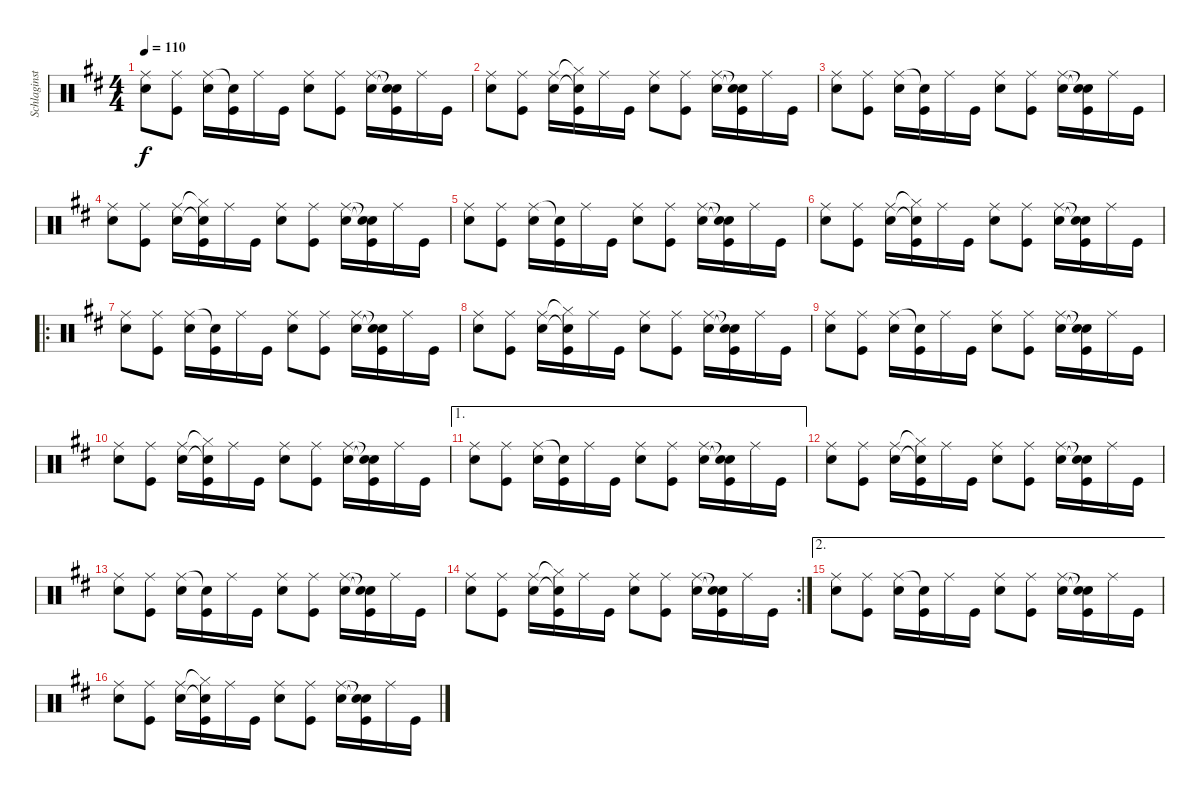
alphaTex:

\track ("Schlaginstrumente - Auswahl" "Schlaginst") {instrument percussion}
\staff {score}
\articulation defaults
\ts (4 4)
\tempo 110
\clef neutral
\ks d
("Ride (middle)" "Snare (hit) 2").8{dy f} ("Ride (middle)" "Kick (hit)").8 ("Ride (middle)" "Snare (hit) 2").16 ("Snare (hit)"{t} "Kick (hit)").16 "Ride (middle)".16 "Kick (hit)".16 ("Ride (middle)" "Snare (hit) 2").8 ("Ride (middle)" "Kick (hit)").8 ("Ride (middle)" "Snare (hit) 2").16 ("Snare (hit)"{t} "Snare (hit)"{t} "Kick (hit)").16 "Ride (middle)".16 "Kick (hit)".16 |
("Ride (middle)" "Snare (hit) 2").8 ("Ride (middle)" "Kick (hit)").8 ("Ride (middle)" "Snare (hit) 2").16 ("Hi-Hat (closed)"{t} "Snare (hit)"{t} "Kick (hit)").16 "Ride (middle)".16 "Kick (hit)".16 ("Ride (middle)" "Snare (hit) 2").8 ("Ride (middle)" "Kick (hit)").8 ("Ride (middle)" "Snare (hit) 2").16 ("Snare (hit)"{t} "Snare (hit)"{t} "Kick (hit)").16 "Ride (middle)".16 "Kick (hit)".16 |
("Ride (middle)" "Snare (hit) 2").8 ("Ride (middle)" "Kick (hit)").8 ("Ride (middle)" "Snare (hit) 2").16 ("Snare (hit)"{t} "Kick (hit)").16 "Ride (middle)".16 "Kick (hit)".16 ("Ride (middle)" "Snare (hit) 2").8 ("Ride (middle)" "Kick (hit)").8 ("Ride (middle)" "Snare (hit) 2").16 ("Snare (hit)"{t} "Snare (hit)"{t} "Kick (hit)").16 "Ride (middle)".16 "Kick (hit)".16 |
("Ride (middle)" "Snare (hit) 2").8 ("Ride (middle)" "Kick (hit)").8 ("Ride (middle)" "Snare (hit) 2").16 ("Hi-Hat (closed)"{t} "Snare (hit)"{t} "Kick (hit)").16 "Ride (middle)".16 "Kick (hit)".16 ("Ride (middle)" "Snare (hit) 2").8 ("Ride (middle)" "Kick (hit)").8 ("Ride (middle)" "Snare (hit) 2").16 ("Snare (hit)"{t} "Snare (hit)"{t} "Kick (hit)").16 "Ride (middle)".16 "Kick (hit)".16 |
("Ride (middle)" "Snare (hit) 2").8 ("Ride (middle)" "Kick (hit)").8 ("Ride (middle)" "Snare (hit) 2").16 ("Snare (hit)"{t} "Kick (hit)").16 "Ride (middle)".16 "Kick (hit)".16 ("Ride (middle)" "Snare (hit) 2").8 ("Ride (middle)" "Kick (hit)").8 ("Ride (middle)" "Snare (hit) 2").16 ("Snare (hit)"{t} "Snare (hit)"{t} "Kick (hit)").16 "Ride (middle)".16 "Kick (hit)".16 |
("Ride (middle)" "Snare (hit) 2").8 ("Ride (middle)" "Kick (hit)").8 ("Ride (middle)" "Snare (hit) 2").16 ("Hi-Hat (closed)"{t} "Snare (hit)"{t} "Kick (hit)").16 "Ride (middle)".16 "Kick (hit)".16 ("Ride (middle)" "Snare (hit) 2").8 ("Ride (middle)" "Kick (hit)").8 ("Ride (middle)" "Snare (hit) 2").16 ("Snare (hit)"{t} "Snare (hit)"{t} "Kick (hit)").16 "Ride (middle)".16 "Kick (hit)".16 |
\ro
("Ride (middle)" "Snare (hit) 2").8 ("Ride (middle)" "Kick (hit)").8 ("Ride (middle)" "Snare (hit) 2").16 ("Snare (hit)"{t} "Kick (hit)").16 "Ride (middle)".16 "Kick (hit)".16 ("Ride (middle)" "Snare (hit) 2").8 ("Ride (middle)" "Kick (hit)").8 ("Ride (middle)" "Snare (hit) 2").16 ("Snare (hit)"{t} "Snare (hit)"{t} "Kick (hit)").16 "Ride (middle)".16 "Kick (hit)".16 |
("Ride (middle)" "Snare (hit) 2").8 ("Ride (middle)" "Kick (hit)").8 ("Ride (middle)" "Snare (hit) 2").16 ("Hi-Hat (closed)"{t} "Snare (hit)"{t} "Kick (hit)").16 "Ride (middle)".16 "Kick (hit)".16 ("Ride (middle)" "Snare (hit) 2").8 ("Ride (middle)" "Kick (hit)").8 ("Ride (middle)" "Snare (hit) 2").16 ("Snare (hit)"{t} "Snare (hit)"{t} "Kick (hit)").16 "Ride (middle)".16 "Kick (hit)".16 |
("Ride (middle)" "Snare (hit) 2").8 ("Ride (middle)" "Kick (hit)").8 ("Ride (middle)" "Snare (hit) 2").16 ("Snare (hit)"{t} "Kick (hit)").16 "Ride (middle)".16 "Kick (hit)".16 ("Ride (middle)" "Snare (hit) 2").8 ("Ride (middle)" "Kick (hit)").8 ("Ride (middle)" "Snare (hit) 2").16 ("Snare (hit)"{t} "Snare (hit)"{t} "Kick (hit)").16 "Ride (middle)".16 "Kick (hit)".16 |
("Ride (middle)" "Snare (hit) 2").8 ("Ride (middle)" "Kick (hit)").8 ("Ride (middle)" "Snare (hit) 2").16 ("Hi-Hat (closed)"{t} "Snare (hit)"{t} "Kick (hit)").16 "Ride (middle)".16 "Kick (hit)".16 ("Ride (middle)" "Snare (hit) 2").8 ("Ride (middle)" "Kick (hit)").8 ("Ride (middle)" "Snare (hit) 2").16 ("Snare (hit)"{t} "Snare (hit)"{t} "Kick (hit)").16 "Ride (middle)".16 "Kick (hit)".16 |
\ae 1
("Ride (middle)" "Snare (hit) 2").8 ("Ride (middle)" "Kick (hit)").8 ("Ride (middle)" "Snare (hit) 2").16 ("Snare (hit)"{t} "Kick (hit)").16 "Ride (middle)".16 "Kick (hit)".16 ("Ride (middle)" "Snare (hit) 2").8 ("Ride (middle)" "Kick (hit)").8 ("Ride (middle)" "Snare (hit) 2").16 ("Snare (hit)"{t} "Snare (hit)"{t} "Kick (hit)").16 "Ride (middle)".16 "Kick (hit)".16 |
("Ride (middle)" "Snare (hit) 2").8 ("Ride (middle)" "Kick (hit)").8 ("Ride (middle)" "Snare (hit) 2").16 ("Hi-Hat (closed)"{t} "Snare (hit)"{t} "Kick (hit)").16 "Ride (middle)".16 "Kick (hit)".16 ("Ride (middle)" "Snare (hit) 2").8 ("Ride (middle)" "Kick (hit)").8 ("Ride (middle)" "Snare (hit) 2").16 ("Snare (hit)"{t} "Snare (hit)"{t} "Kick (hit)").16 "Ride (middle)".16 "Kick (hit)".16 |
("Ride (middle)" "Snare (hit) 2").8 ("Ride (middle)" "Kick (hit)").8 ("Ride (middle)" "Snare (hit) 2").16 ("Snare (hit)"{t} "Kick (hit)").16 "Ride (middle)".16 "Kick (hit)".16 ("Ride (middle)" "Snare (hit) 2").8 ("Ride (middle)" "Kick (hit)").8 ("Ride (middle)" "Snare (hit) 2").16 ("Snare (hit)"{t} "Snare (hit)"{t} "Kick (hit)").16 "Ride (middle)".16 "Kick (hit)".16 |
\rc 2
("Ride (middle)" "Snare (hit) 2").8 ("Ride (middle)" "Kick (hit)").8 ("Ride (middle)" "Snare (hit) 2").16 ("Hi-Hat (closed)"{t} "Snare (hit)"{t} "Kick (hit)").16 "Ride (middle)".16 "Kick (hit)".16 ("Ride (middle)" "Snare (hit) 2").8 ("Ride (middle)" "Kick (hit)").8 ("Ride (middle)" "Snare (hit) 2").16 ("Snare (hit)"{t} "Snare (hit)"{t} "Kick (hit)").16 "Ride (middle)".16 "Kick (hit)".16 |
\ae 2
("Ride (middle)" "Snare (hit) 2").8 ("Ride (middle)" "Kick (hit)").8 ("Ride (middle)" "Snare (hit) 2").16 ("Snare (hit)"{t} "Kick (hit)").16 "Ride (middle)".16 "Kick (hit)".16 ("Ride (middle)" "Snare (hit) 2").8 ("Ride (middle)" "Kick (hit)").8 ("Ride (middle)" "Snare (hit) 2").16 ("Snare (hit)"{t} "Snare (hit)"{t} "Kick (hit)").16 "Ride (middle)".16 "Kick (hit)".16 |
("Ride (middle)" "Snare (hit) 2").8 ("Ride (middle)" "Kick (hit)").8 ("Ride (middle)" "Snare (hit) 2").16 ("Hi-Hat (closed)"{t} "Snare (hit)"{t} "Kick (hit)").16 "Ride (middle)".16 "Kick (hit)".16 ("Ride (middle)" "Snare (hit) 2").8 ("Ride (middle)" "Kick (hit)").8 ("Ride (middle)" "Snare (hit) 2").16 ("Snare (hit)"{t} "Snare (hit)"{t} "Kick (hit)").16 "Ride (middle)".16 "Kick (hit)".16
